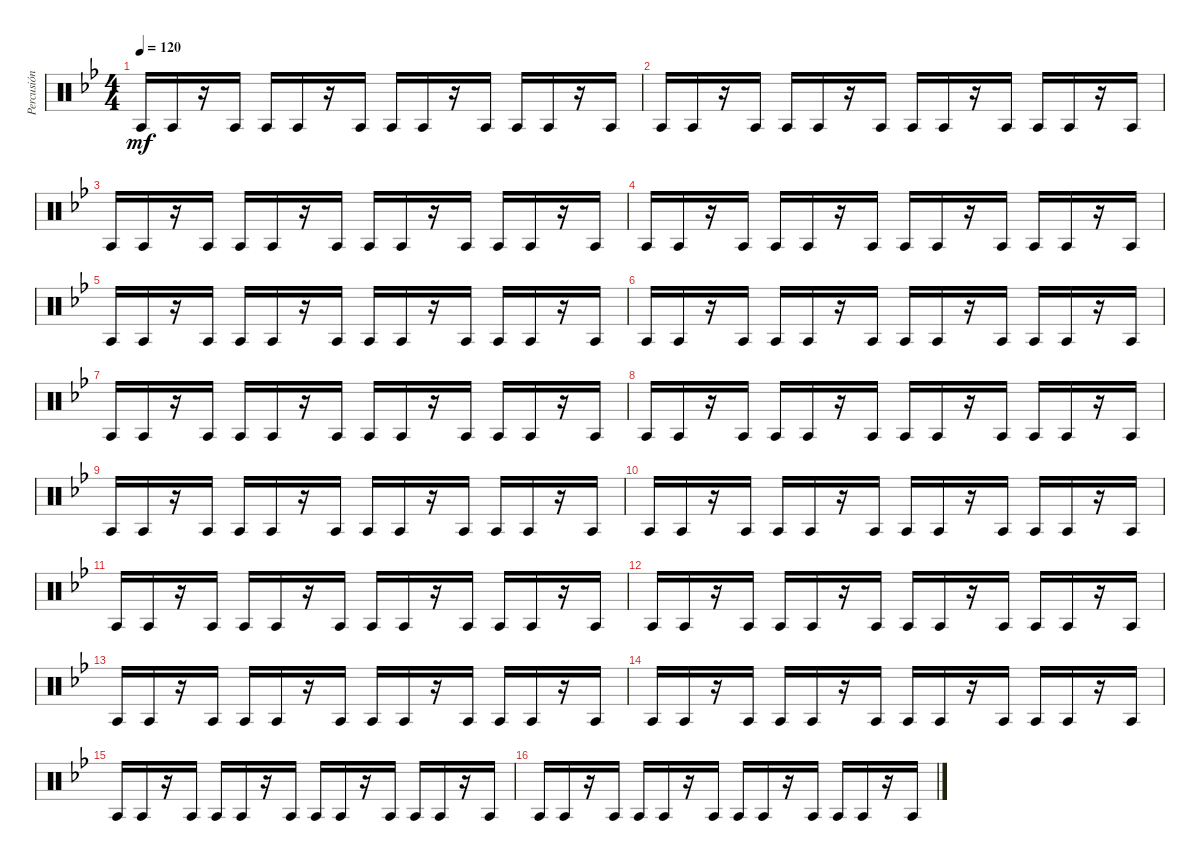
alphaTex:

\track ("Percusión" "Percusión") {instrument percussion}
\staff {score}
\articulation defaults
\ts (4 4)
\tempo 120
\clef neutral
\ks bb "Agogo tow (hit)".16{dy mf} "Agogo tow (hit)".16
r.16 "Agogo tow (hit)".16 "Agogo tow (hit)".16 "Agogo tow (hit)".16 r.16 "Agogo tow (hit)".16 "Agogo tow (hit)".16 "Agogo tow (hit)".16 r.16 "Agogo tow (hit)".16 "Agogo tow (hit)".16 "Agogo tow (hit)".16 r.16 "Agogo tow (hit)".16 |
"Agogo tow (hit)".16 "Agogo tow (hit)".16 r.16 "Agogo tow (hit)".16 "Agogo tow (hit)".16 "Agogo tow (hit)".16 r.16 "Agogo tow (hit)".16 "Agogo tow (hit)".16 "Agogo tow (hit)".16 r.16 "Agogo tow (hit)".16 "Agogo tow (hit)".16 "Agogo tow (hit)".16 r.16 "Agogo tow (hit)".16 |
"Agogo tow (hit)".16 "Agogo tow (hit)".16 r.16 "Agogo tow (hit)".16 "Agogo tow (hit)".16 "Agogo tow (hit)".16 r.16 "Agogo tow (hit)".16 "Agogo tow (hit)".16 "Agogo tow (hit)".16 r.16 "Agogo tow (hit)".16 "Agogo tow (hit)".16 "Agogo tow (hit)".16 r.16 "Agogo tow (hit)".16 |
"Agogo tow (hit)".16 "Agogo tow (hit)".16 r.16 "Agogo tow (hit)".16 "Agogo tow (hit)".16 "Agogo tow (hit)".16 r.16 "Agogo tow (hit)".16 "Agogo tow (hit)".16 "Agogo tow (hit)".16 r.16 "Agogo tow (hit)".16 "Agogo tow (hit)".16 "Agogo tow (hit)".16 r.16 "Agogo tow (hit)".16 |
"Agogo tow (hit)".16 "Agogo tow (hit)".16 r.16 "Agogo tow (hit)".16 "Agogo tow (hit)".16 "Agogo tow (hit)".16 r.16 "Agogo tow (hit)".16 "Agogo tow (hit)".16 "Agogo tow (hit)".16 r.16 "Agogo tow (hit)".16 "Agogo tow (hit)".16 "Agogo tow (hit)".16 r.16 "Agogo tow (hit)".16 |
"Agogo tow (hit)".16 "Agogo tow (hit)".16 r.16 "Agogo tow (hit)".16 "Agogo tow (hit)".16 "Agogo tow (hit)".16 r.16 "Agogo tow (hit)".16 "Agogo tow (hit)".16 "Agogo tow (hit)".16 r.16 "Agogo tow (hit)".16 "Agogo tow (hit)".16 "Agogo tow (hit)".16 r.16 "Agogo tow (hit)".16 |
"Agogo tow (hit)".16 "Agogo tow (hit)".16 r.16 "Agogo tow (hit)".16 "Agogo tow (hit)".16 "Agogo tow (hit)".16 r.16 "Agogo tow (hit)".16 "Agogo tow (hit)".16 "Agogo tow (hit)".16 r.16 "Agogo tow (hit)".16 "Agogo tow (hit)".16 "Agogo tow (hit)".16 r.16 "Agogo tow (hit)".16 |
"Agogo tow (hit)".16 "Agogo tow (hit)".16 r.16 "Agogo tow (hit)".16 "Agogo tow (hit)".16 "Agogo tow (hit)".16 r.16 "Agogo tow (hit)".16 "Agogo tow (hit)".16 "Agogo tow (hit)".16 r.16 "Agogo tow (hit)".16 "Agogo tow (hit)".16 "Agogo tow (hit)".16 r.16 "Agogo tow (hit)".16 |
"Agogo tow (hit)".16 "Agogo tow (hit)".16 r.16 "Agogo tow (hit)".16 "Agogo tow (hit)".16 "Agogo tow (hit)".16 r.16 "Agogo tow (hit)".16 "Agogo tow (hit)".16 "Agogo tow (hit)".16 r.16 "Agogo tow (hit)".16 "Agogo tow (hit)".16 "Agogo tow (hit)".16 r.16 "Agogo tow (hit)".16 |
"Agogo tow (hit)".16 "Agogo tow (hit)".16 r.16 "Agogo tow (hit)".16 "Agogo tow (hit)".16 "Agogo tow (hit)".16 r.16 "Agogo tow (hit)".16 "Agogo tow (hit)".16 "Agogo tow (hit)".16 r.16 "Agogo tow (hit)".16 "Agogo tow (hit)".16 "Agogo tow (hit)".16 r.16 "Agogo tow (hit)".16 |
"Agogo tow (hit)".16 "Agogo tow (hit)".16 r.16 "Agogo tow (hit)".16 "Agogo tow (hit)".16 "Agogo tow (hit)".16 r.16 "Agogo tow (hit)".16 "Agogo tow (hit)".16 "Agogo tow (hit)".16 r.16 "Agogo tow (hit)".16 "Agogo tow (hit)".16 "Agogo tow (hit)".16 r.16 "Agogo tow (hit)".16 |
"Agogo tow (hit)".16 "Agogo tow (hit)".16 r.16 "Agogo tow (hit)".16 "Agogo tow (hit)".16 "Agogo tow (hit)".16 r.16 "Agogo tow (hit)".16 "Agogo tow (hit)".16 "Agogo tow (hit)".16 r.16 "Agogo tow (hit)".16 "Agogo tow (hit)".16 "Agogo tow (hit)".16 r.16 "Agogo tow (hit)".16 |
"Agogo tow (hit)".16 "Agogo tow (hit)".16 r.16 "Agogo tow (hit)".16 "Agogo tow (hit)".16 "Agogo tow (hit)".16 r.16 "Agogo tow (hit)".16 "Agogo tow (hit)".16 "Agogo tow (hit)".16 r.16 "Agogo tow (hit)".16 "Agogo tow (hit)".16 "Agogo tow (hit)".16 r.16 "Agogo tow (hit)".16 |
"Agogo tow (hit)".16 "Agogo tow (hit)".16 r.16 "Agogo tow (hit)".16 "Agogo tow (hit)".16 "Agogo tow (hit)".16 r.16 "Agogo tow (hit)".16 "Agogo tow (hit)".16 "Agogo tow (hit)".16 r.16 "Agogo tow (hit)".16 "Agogo tow (hit)".16 "Agogo tow (hit)".16 r.16 "Agogo tow (hit)".16 |
"Agogo tow (hit)".16 "Agogo tow (hit)".16 r.16 "Agogo tow (hit)".16 "Agogo tow (hit)".16 "Agogo tow (hit)".16 r.16 "Agogo tow (hit)".16 "Agogo tow (hit)".16 "Agogo tow (hit)".16 r.16 "Agogo tow (hit)".16 "Agogo tow (hit)".16 "Agogo tow (hit)".16 r.16 "Agogo tow (hit)".16 |
"Agogo tow (hit)".16 "Agogo tow (hit)".16 r.16 "Agogo tow (hit)".16 "Agogo tow (hit)".16 "Agogo tow (hit)".16 r.16 "Agogo tow (hit)".16 "Agogo tow (hit)".16 "Agogo tow (hit)".16 r.16 "Agogo tow (hit)".16 "Agogo tow (hit)".16 "Agogo tow (hit)".16 r.16 "Agogo tow (hit)".16
